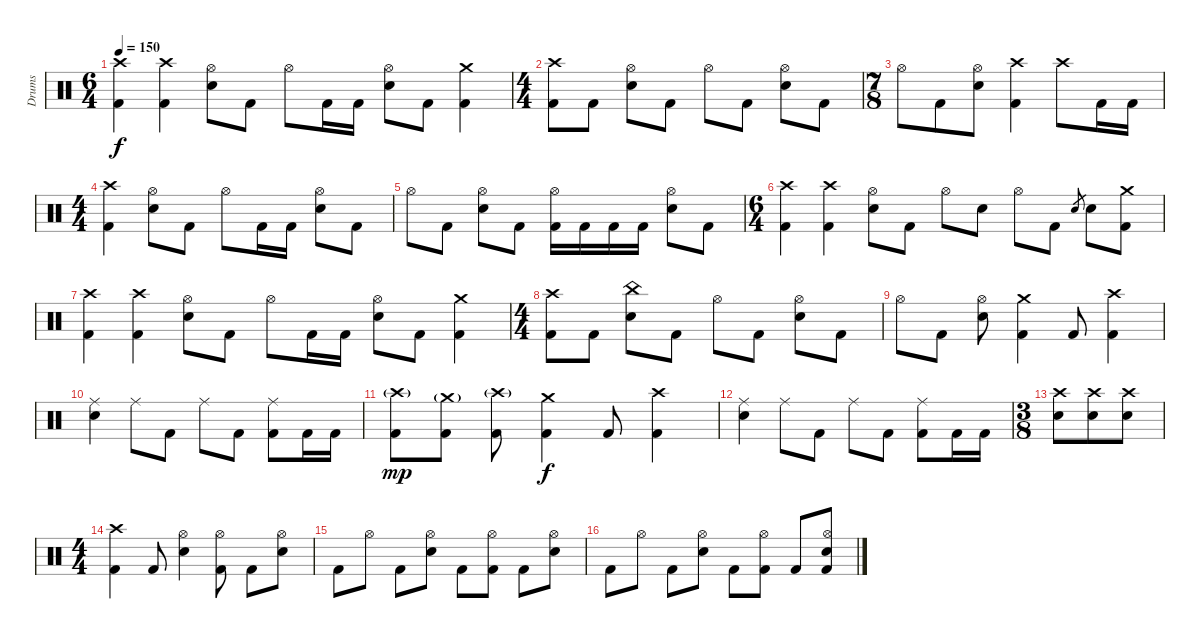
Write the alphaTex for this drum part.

\track ("Drums" "Drums") {instrument percussion}
\staff {score}
\articulation defaults
\ts (6 4)
\tempo 150
\clef neutral
\ks c
("Crash high (hit)" "Kick (hit) 2").4{dy f} ("Crash high (hit)" "Kick (hit) 2").4 ("Hi-Hat (open)" "Electric Snare (hit)").8 "Kick (hit) 2".8 "Hi-Hat (open)".8 "Kick (hit) 2".16 "Kick (hit) 2".16 ("Hi-Hat (open)" "Electric Snare (hit)").8 "Kick (hit) 2".8 ("Crash medium (hit)" "Kick (hit) 2").4 |
\ts (4 4)
("Crash high (hit)" "Kick (hit) 2").8 "Kick (hit) 2".8 ("Hi-Hat (open)" "Electric Snare (hit)").8 "Kick (hit) 2".8 "Hi-Hat (open)".8 "Kick (hit) 2".8 ("Hi-Hat (open)" "Electric Snare (hit)").8 "Kick (hit) 2".8 |
\ts (7 8)
"Hi-Hat (open)".8 "Kick (hit) 2".8 ("Hi-Hat (open)" "Electric Snare (hit)").8 ("Crash high (hit)" "Kick (hit) 2").4 "Crash high (hit)".8 "Kick (hit) 2".16 "Kick (hit) 2".16 |
\ts (4 4)
("Crash high (hit)" "Kick (hit) 2").4 ("Hi-Hat (open)" "Electric Snare (hit)").8 "Kick (hit) 2".8 "Hi-Hat (open)".8 "Kick (hit) 2".16 "Kick (hit) 2".16 ("Hi-Hat (open)" "Electric Snare (hit)").8 "Kick (hit) 2".8 |
"Hi-Hat (open)".8 "Kick (hit) 2".8 ("Hi-Hat (open)" "Electric Snare (hit)").8 "Kick (hit) 2".8 ("Hi-Hat (open)" "Kick (hit) 2").16 "Kick (hit) 2".16 "Kick (hit) 2".16 "Kick (hit) 2".16 ("Hi-Hat (open)" "Electric Snare (hit)").8 "Kick (hit) 2".8 |
\ts (6 4)
("Crash high (hit)" "Kick (hit) 2").4 ("Crash high (hit)" "Kick (hit) 2").4 ("Hi-Hat (open)" "Electric Snare (hit)").8 "Kick (hit) 2".8 "Hi-Hat (open)".8 "Electric Snare (hit)".8 "Hi-Hat (open)".8 "Kick (hit) 2".8 "Electric Snare (hit)".8{gr} "Electric Snare (hit)".8 ("Crash medium (hit)" "Kick (hit) 2").8 |
("Crash high (hit)" "Kick (hit) 2").4 ("Crash high (hit)" "Kick (hit) 2").4 ("Hi-Hat (open)" "Electric Snare (hit)").8 "Kick (hit) 2".8 "Hi-Hat (open)".8 "Kick (hit) 2".16 "Kick (hit) 2".16 ("Hi-Hat (open)" "Electric Snare (hit)").8 "Kick (hit) 2".8 ("Crash medium (hit)" "Kick (hit) 2").4 |
\ts (4 4)
("Crash high (hit)" "Kick (hit) 2").8 "Kick (hit) 2".8 ("China (hit)" "Electric Snare (hit)").8 "Kick (hit) 2".8 "Hi-Hat (open)".8 "Kick (hit) 2".8 ("Hi-Hat (open)" "Electric Snare (hit)").8 "Kick (hit) 2".8 |
"Hi-Hat (open)".8 "Kick (hit) 2".8 ("Hi-Hat (open)" "Electric Snare (hit)").8 ("Crash medium (hit)" "Kick (hit) 2").4 "Kick (hit) 2".8 ("Crash high (hit)" "Kick (hit) 2").4 |
("Ride (middle)" "Electric Snare (hit)").4 "Ride (middle)".8 "Kick (hit) 2".8 "Ride (middle)".8 "Kick (hit) 2".8 ("Ride (middle)" "Kick (hit) 2").8 "Kick (hit) 2".16 "Kick (hit) 2".16 |
("Crash high (hit)"{g} "Kick (hit) 2").8{dy mp} ("Crash medium (hit)"{g} "Kick (hit) 2").8 ("Crash high (hit)"{g} "Kick (hit) 2").8 ("Crash medium (hit)" "Kick (hit) 2").4{dy f} "Kick (hit) 2".8 ("Crash high (hit)" "Kick (hit) 2").4 |
("Ride (middle)" "Electric Snare (hit)").4 "Ride (middle)".8 "Kick (hit) 2".8 "Ride (middle)".8 "Kick (hit) 2".8 ("Ride (middle)" "Kick (hit) 2").8 "Kick (hit) 2".16 "Kick (hit) 2".16 |
\ts (3 8)
("Crash high (hit)" "Electric Snare (hit)").8 ("Crash high (hit)" "Electric Snare (hit)").8 ("Crash high (hit)" "Electric Snare (hit)").8 |
\ts (4 4)
("Crash high (hit)" "Kick (hit) 2").4 "Kick (hit) 2".8 ("Hi-Hat (open)" "Electric Snare (hit)").4 ("Hi-Hat (open)" "Kick (hit) 2").8 "Kick (hit) 2".8 ("Hi-Hat (open)" "Electric Snare (hit)").8 |
"Kick (hit) 2".8 "Hi-Hat (open)".8 "Kick (hit) 2".8 ("Hi-Hat (open)" "Electric Snare (hit)").8 "Kick (hit) 2".8 ("Hi-Hat (open)" "Kick (hit) 2").8 "Kick (hit) 2".8 ("Hi-Hat (open)" "Electric Snare (hit)").8 |
"Kick (hit) 2".8 "Hi-Hat (open)".8 "Kick (hit) 2".8 ("Hi-Hat (open)" "Electric Snare (hit)").8 "Kick (hit) 2".8 ("Hi-Hat (open)" "Kick (hit) 2").8 "Kick (hit) 2".8 ("Hi-Hat (open)" "Electric Snare (hit)" "Kick (hit) 2").8
